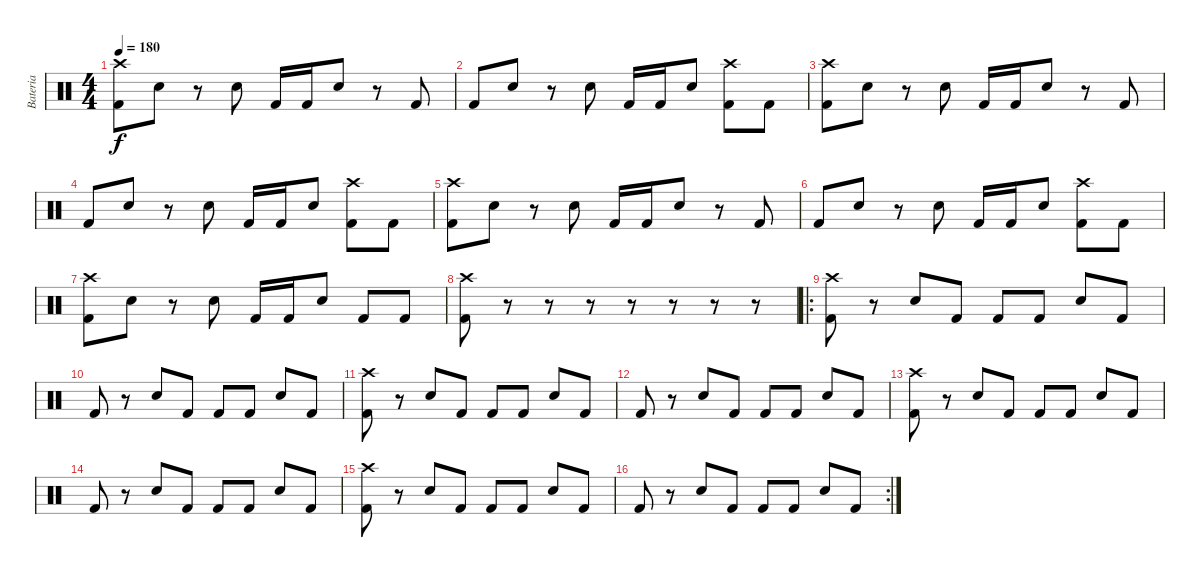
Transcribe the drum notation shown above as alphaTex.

\track ("Bateria" "Bateria") {instrument percussion}
\staff {score}
\articulation defaults
\ts (4 4)
\tempo 180
\clef neutral
\ks c
("Kick (hit) 2" "Crash high (hit)").8{dy f} "Electric Snare (hit)".8 r.8 "Electric Snare (hit)".8 "Kick (hit) 2".16 "Kick (hit) 2".16 "Electric Snare (hit)".8 r.8 "Kick (hit) 2".8 |
"Kick (hit) 2".8 "Electric Snare (hit)".8 r.8 "Electric Snare (hit)".8 "Kick (hit) 2".16 "Kick (hit) 2".16 "Electric Snare (hit)".8 ("Crash high (hit)" "Kick (hit) 2").8 "Kick (hit) 2".8 |
("Kick (hit) 2" "Crash high (hit)").8 "Electric Snare (hit)".8 r.8 "Electric Snare (hit)".8 "Kick (hit) 2".16 "Kick (hit) 2".16 "Electric Snare (hit)".8 r.8 "Kick (hit) 2".8 |
"Kick (hit) 2".8 "Electric Snare (hit)".8 r.8 "Electric Snare (hit)".8 "Kick (hit) 2".16 "Kick (hit) 2".16 "Electric Snare (hit)".8 ("Kick (hit) 2" "Crash high (hit)").8 "Kick (hit) 2".8 |
("Kick (hit) 2" "Crash high (hit)").8 "Electric Snare (hit)".8 r.8 "Electric Snare (hit)".8 "Kick (hit) 2".16 "Kick (hit) 2".16 "Electric Snare (hit)".8 r.8 "Kick (hit) 2".8 |
"Kick (hit) 2".8 "Electric Snare (hit)".8 r.8 "Electric Snare (hit)".8 "Kick (hit) 2".16 "Kick (hit) 2".16 "Electric Snare (hit)".8 ("Kick (hit) 2" "Crash high (hit)").8 "Kick (hit) 2".8 |
("Kick (hit) 2" "Crash high (hit)").8 "Electric Snare (hit)".8 r.8 "Electric Snare (hit)".8 "Kick (hit) 2".16 "Kick (hit) 2".16 "Electric Snare (hit)".8 "Kick (hit) 2".8 "Kick (hit) 2".8 |
("Kick (hit) 2" "Crash high (hit)").8 r.8 r.8 r.8 r.8 r.8 r.8 r.8 |
\ro
("Kick (hit) 2" "Crash high (hit)").8 r.8 "Electric Snare (hit)".8 "Kick (hit) 2".8 "Kick (hit) 2".8 "Kick (hit) 2".8 "Electric Snare (hit)".8 "Kick (hit) 2".8 |
"Kick (hit) 2".8 r.8 "Electric Snare (hit)".8 "Kick (hit) 2".8 "Kick (hit) 2".8 "Kick (hit) 2".8 "Electric Snare (hit)".8 "Kick (hit) 2".8 |
("Kick (hit) 2" "Crash high (hit)").8 r.8 "Electric Snare (hit)".8 "Kick (hit) 2".8 "Kick (hit) 2".8 "Kick (hit) 2".8 "Electric Snare (hit)".8 "Kick (hit) 2".8 |
"Kick (hit) 2".8 r.8 "Electric Snare (hit)".8 "Kick (hit) 2".8 "Kick (hit) 2".8 "Kick (hit) 2".8 "Electric Snare (hit)".8 "Kick (hit) 2".8 |
("Kick (hit) 2" "Crash high (hit)").8 r.8 "Electric Snare (hit)".8 "Kick (hit) 2".8 "Kick (hit) 2".8 "Kick (hit) 2".8 "Electric Snare (hit)".8 "Kick (hit) 2".8 |
"Kick (hit) 2".8 r.8 "Electric Snare (hit)".8 "Kick (hit) 2".8 "Kick (hit) 2".8 "Kick (hit) 2".8 "Electric Snare (hit)".8 "Kick (hit) 2".8 |
("Kick (hit) 2" "Crash high (hit)").8 r.8 "Electric Snare (hit)".8 "Kick (hit) 2".8 "Kick (hit) 2".8 "Kick (hit) 2".8 "Electric Snare (hit)".8 "Kick (hit) 2".8 |
\rc 2 "Kick (hit) 2".8
r.8 "Electric Snare (hit)".8 "Kick (hit) 2".8 "Kick (hit) 2".8 "Kick (hit) 2".8 "Electric Snare (hit)".8 "Kick (hit) 2".8
